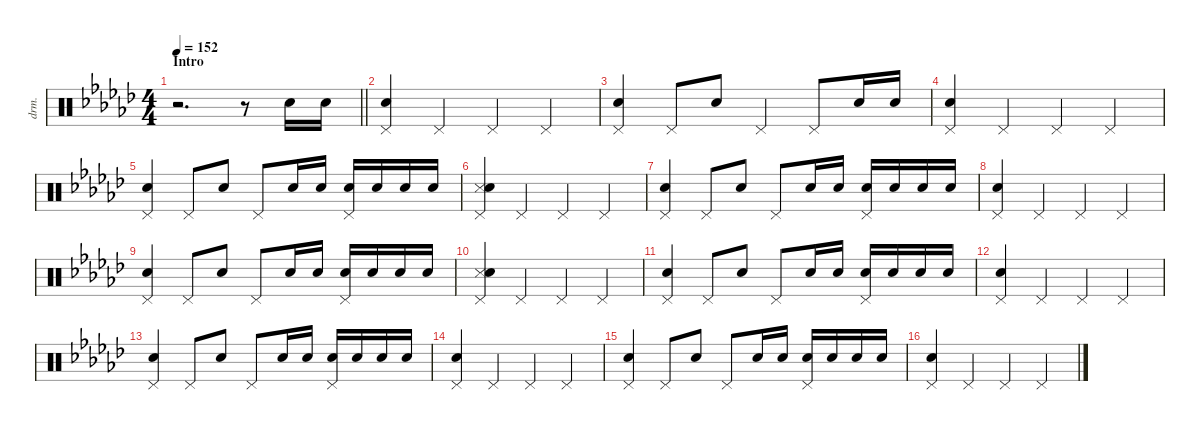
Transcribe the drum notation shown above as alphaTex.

\defaultSystemsLayout 4
\hideDynamics
\bracketExtendMode nobrackets
\otherSystemsTrackNameOrientation horizontal
\track ("Drums" "drm.") {defaultSystemsLayout 4 instrument percussion}
\staff {score}
\articulation defaults
\ts (4 4)
\section ("" "Intro")
\ac
\tempo 152
\clef neutral
\barLineRight lightlight
\ks gb
r.2{d dy mf beam Down} r.8{beam Down} "Snare (hit) 2"{acc forcenatural}.16{beam Down} "Snare (hit) 2"{acc forcenatural}.16{beam Down} |
("Pedal Hi-Hat (hit)"{acc forcenatural} "Snare (hit) 2"{acc forcenatural}).4{dy f beam Up} "Pedal Hi-Hat (hit)"{acc forcenatural}.4{beam Up} "Pedal Hi-Hat (hit)"{acc forcenatural}.4{beam Up} "Pedal Hi-Hat (hit)"{acc forcenatural}.4{beam Up} |
("Pedal Hi-Hat (hit)"{acc forcenatural} "Snare (hit) 2"{acc forcenatural}).4{beam Up} "Pedal Hi-Hat (hit)"{acc forcenatural}.8{beam Up} "Snare (hit) 2"{acc forcenatural}.8{dy mf beam Up} "Pedal Hi-Hat (hit)"{acc forcenatural}.4{dy f beam Up} "Pedal Hi-Hat (hit)"{acc forcenatural}.8{beam Up} "Snare (hit) 2"{acc forcenatural}.16{dy mf beam Up} "Snare (hit) 2"{acc forcenatural}.16{beam Up} |
("Pedal Hi-Hat (hit)"{acc forcenatural} "Snare (hit) 2"{acc forcenatural}).4{dy f beam Up} "Pedal Hi-Hat (hit)"{acc forcenatural}.4{beam Up} "Pedal Hi-Hat (hit)"{acc forcenatural}.4{beam Up} "Pedal Hi-Hat (hit)"{acc forcenatural}.4{beam Up} |
("Pedal Hi-Hat (hit)"{acc forcenatural} "Snare (hit) 2"{acc forcenatural}).4{beam Up} "Pedal Hi-Hat (hit)"{acc forcenatural}.8{beam Up} "Snare (hit) 2"{acc forcenatural}.8{dy mf beam Up} "Pedal Hi-Hat (hit)"{acc forcenatural}.8{dy f beam Up} "Snare (hit) 2"{acc forcenatural}.16{dy p beam Up} "Snare (hit) 2"{acc forcenatural}.16{dy mp beam Up} ("Pedal Hi-Hat (hit)"{acc forcenatural} "Snare (hit) 2"{acc forcenatural}).16{dy f beam Up} "Snare (hit) 2"{acc forcenatural}.16{dy mf beam Up} "Snare (hit) 2"{acc forcenatural}.16{dy f beam Up} "Snare (hit) 2"{acc forcenatural}.16{dy ff beam Up} |
("Pedal Hi-Hat (hit)"{acc forcenatural} "Snare (side stick) 3"{acc forcenatural} "Snare (hit) 2"{acc forcenatural}).4{dy f beam Up} "Pedal Hi-Hat (hit)"{acc forcenatural}.4{beam Up} "Pedal Hi-Hat (hit)"{acc forcenatural}.4{beam Up} "Pedal Hi-Hat (hit)"{acc forcenatural}.4{beam Up} |
("Pedal Hi-Hat (hit)"{acc forcenatural} "Snare (hit) 2"{acc forcenatural}).4{beam Up} "Pedal Hi-Hat (hit)"{acc forcenatural}.8{beam Up} "Snare (hit) 2"{acc forcenatural}.8{dy mf beam Up} "Pedal Hi-Hat (hit)"{acc forcenatural}.8{dy f beam Up} "Snare (hit) 2"{acc forcenatural}.16{dy p beam Up} "Snare (hit) 2"{acc forcenatural}.16{dy mp beam Up} ("Pedal Hi-Hat (hit)"{acc forcenatural} "Snare (hit) 2"{acc forcenatural}).16{dy f beam Up} "Snare (hit) 2"{acc forcenatural}.16{dy mf beam Up} "Snare (hit) 2"{acc forcenatural}.16{dy f beam Up} "Snare (hit) 2"{acc forcenatural}.16{dy ff beam Up} |
("Pedal Hi-Hat (hit)"{acc forcenatural} "Snare (hit) 2"{acc forcenatural}).4{dy f beam Up} "Pedal Hi-Hat (hit)"{acc forcenatural}.4{beam Up} "Pedal Hi-Hat (hit)"{acc forcenatural}.4{beam Up} "Pedal Hi-Hat (hit)"{acc forcenatural}.4{beam Up} |
("Pedal Hi-Hat (hit)"{acc forcenatural} "Snare (hit) 2"{acc forcenatural}).4{beam Up} "Pedal Hi-Hat (hit)"{acc forcenatural}.8{beam Up} "Snare (hit) 2"{acc forcenatural}.8{dy mf beam Up} "Pedal Hi-Hat (hit)"{acc forcenatural}.8{dy f beam Up} "Snare (hit) 2"{acc forcenatural}.16{dy p beam Up} "Snare (hit) 2"{acc forcenatural}.16{dy mp beam Up} ("Pedal Hi-Hat (hit)"{acc forcenatural} "Snare (hit) 2"{acc forcenatural}).16{dy f beam Up} "Snare (hit) 2"{acc forcenatural}.16{dy mf beam Up} "Snare (hit) 2"{acc forcenatural}.16{dy f beam Up} "Snare (hit) 2"{acc forcenatural}.16{dy ff beam Up} |
("Pedal Hi-Hat (hit)"{acc forcenatural} "Snare (side stick) 3"{acc forcenatural} "Snare (hit) 2"{acc forcenatural}).4{dy f beam Up} "Pedal Hi-Hat (hit)"{acc forcenatural}.4{beam Up} "Pedal Hi-Hat (hit)"{acc forcenatural}.4{beam Up} "Pedal Hi-Hat (hit)"{acc forcenatural}.4{beam Up} |
("Pedal Hi-Hat (hit)"{acc forcenatural} "Snare (hit) 2"{acc forcenatural}).4{beam Up} "Pedal Hi-Hat (hit)"{acc forcenatural}.8{beam Up} "Snare (hit) 2"{acc forcenatural}.8{dy mf beam Up} "Pedal Hi-Hat (hit)"{acc forcenatural}.8{dy f beam Up} "Snare (hit) 2"{acc forcenatural}.16{dy p beam Up} "Snare (hit) 2"{acc forcenatural}.16{dy mp beam Up} ("Pedal Hi-Hat (hit)"{acc forcenatural} "Snare (hit) 2"{acc forcenatural}).16{dy f beam Up} "Snare (hit) 2"{acc forcenatural}.16{dy mf beam Up} "Snare (hit) 2"{acc forcenatural}.16{dy f beam Up} "Snare (hit) 2"{acc forcenatural}.16{dy ff beam Up} |
("Pedal Hi-Hat (hit)"{acc forcenatural} "Snare (hit) 2"{acc forcenatural}).4{dy f beam Up} "Pedal Hi-Hat (hit)"{acc forcenatural}.4{beam Up} "Pedal Hi-Hat (hit)"{acc forcenatural}.4{beam Up} "Pedal Hi-Hat (hit)"{acc forcenatural}.4{beam Up} |
("Pedal Hi-Hat (hit)"{acc forcenatural} "Snare (hit) 2"{acc forcenatural}).4{beam Up} "Pedal Hi-Hat (hit)"{acc forcenatural}.8{beam Up} "Snare (hit) 2"{acc forcenatural}.8{dy mf beam Up} "Pedal Hi-Hat (hit)"{acc forcenatural}.8{dy f beam Up} "Snare (hit) 2"{acc forcenatural}.16{dy p beam Up} "Snare (hit) 2"{acc forcenatural}.16{dy mp beam Up} ("Pedal Hi-Hat (hit)"{acc forcenatural} "Snare (hit) 2"{acc forcenatural}).16{dy f beam Up} "Snare (hit) 2"{acc forcenatural}.16{dy mf beam Up} "Snare (hit) 2"{acc forcenatural}.16{dy f beam Up} "Snare (hit) 2"{acc forcenatural}.16{dy ff beam Up} |
("Pedal Hi-Hat (hit)"{acc forcenatural} "Snare (hit) 2"{acc forcenatural}).4{dy f beam Up} "Pedal Hi-Hat (hit)"{acc forcenatural}.4{beam Up} "Pedal Hi-Hat (hit)"{acc forcenatural}.4{beam Up} "Pedal Hi-Hat (hit)"{acc forcenatural}.4{beam Up} |
("Pedal Hi-Hat (hit)"{acc forcenatural} "Snare (hit) 2"{acc forcenatural}).4{beam Up} "Pedal Hi-Hat (hit)"{acc forcenatural}.8{beam Up} "Snare (hit) 2"{acc forcenatural}.8{dy mf beam Up} "Pedal Hi-Hat (hit)"{acc forcenatural}.8{dy f beam Up} "Snare (hit) 2"{acc forcenatural}.16{dy p beam Up} "Snare (hit) 2"{acc forcenatural}.16{dy mp beam Up} ("Pedal Hi-Hat (hit)"{acc forcenatural} "Snare (hit) 2"{acc forcenatural}).16{dy f beam Up} "Snare (hit) 2"{acc forcenatural}.16{dy mf beam Up} "Snare (hit) 2"{acc forcenatural}.16{dy f beam Up} "Snare (hit) 2"{acc forcenatural}.16{dy ff beam Up} |
("Pedal Hi-Hat (hit)"{acc forcenatural} "Snare (hit) 2"{acc forcenatural}).4{dy f beam Up} "Pedal Hi-Hat (hit)"{acc forcenatural}.4{beam Up} "Pedal Hi-Hat (hit)"{acc forcenatural}.4{beam Up} "Pedal Hi-Hat (hit)"{acc forcenatural}.4{beam Up}
